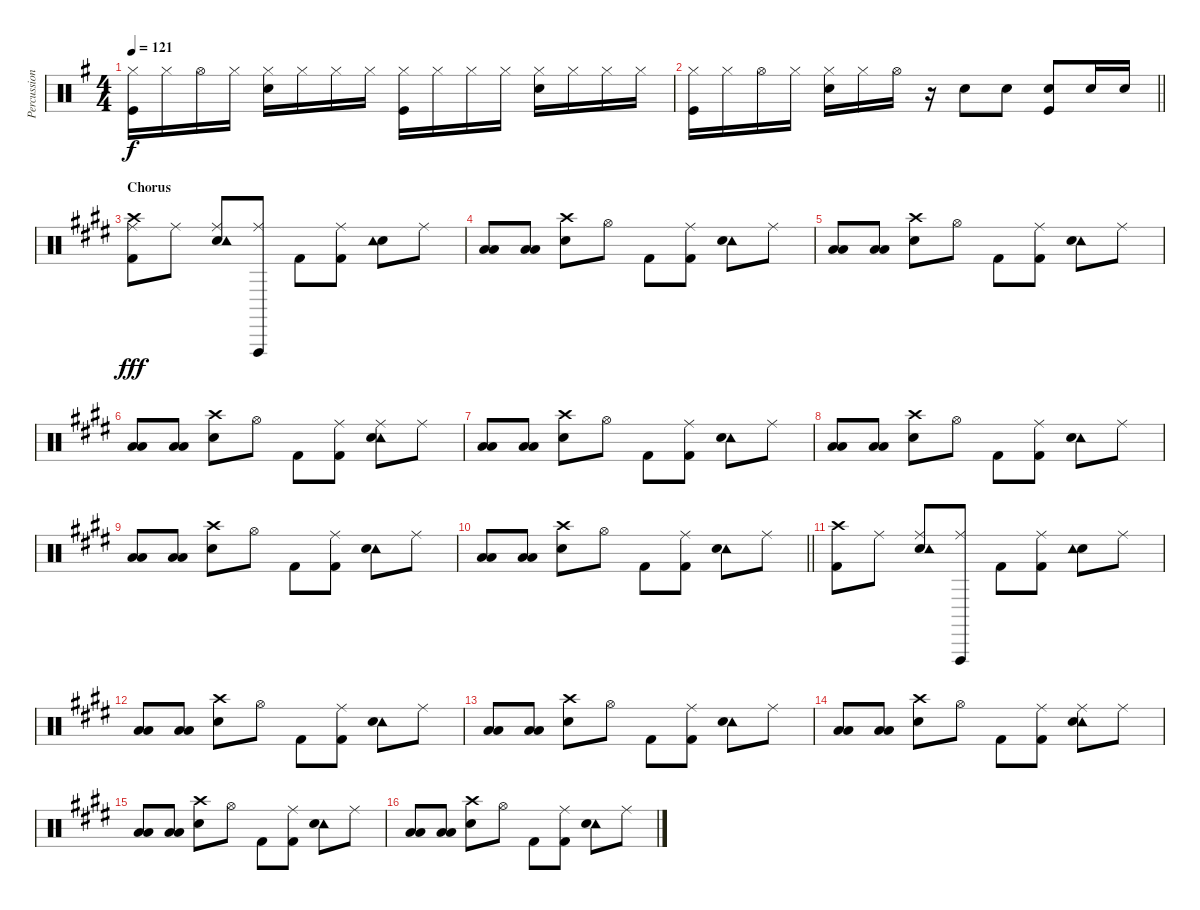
\track ("Percussion" "Percussion") {instrument percussion}
\staff {score}
\articulation defaults
\ts (4 4)
\tempo 121
\clef neutral
\ks g
("Hi-Hat (closed)" "Kick (hit)").16{dy f} "Hi-Hat (closed)".16 "Hi-Hat (open)".16 "Hi-Hat (closed)".16 ("Hi-Hat (closed)" "Snare (hit) 2").16 "Hi-Hat (closed)".16 "Hi-Hat (closed)".16 "Hi-Hat (closed)".16 ("Hi-Hat (closed)" "Kick (hit)").16 "Hi-Hat (closed)".16 "Hi-Hat (closed)".16 "Hi-Hat (closed)".16 ("Hi-Hat (closed)" "Snare (hit) 2").16 "Hi-Hat (closed)".16 "Hi-Hat (closed)".16 "Hi-Hat (closed)".16 |
\barLineRight lightlight
("Hi-Hat (closed)" "Kick (hit)").16 "Hi-Hat (closed)".16 "Hi-Hat (open)".16 "Hi-Hat (closed)".16 ("Hi-Hat (closed)" "Snare (hit) 2").16 "Hi-Hat (closed)".16 "Hi-Hat (open)".16 r.16 "Snare (hit) 2".8 "Snare (hit) 2".8 ("Kick (hit)" "Snare (hit) 2").8 "Snare (hit) 2".16 "Snare (hit) 2".16 |
\section ("" "Chorus")
\ks e
("Ride (middle)" "Crash high (hit)" "Kick (hit) 2").8{dy fff} "Ride (middle)".8 ("Ride (middle)" "Snare (hit) 2" "Tambourine (hit)").8 ("Ride (middle)" "Vibraslap (hit)").8 "Kick (hit) 2".8 ("Ride (middle)" "Kick (hit) 2").8 ("Snare (hit) 2" "Tambourine (hit)").8 "Ride (middle)".8 |
("Low Tom (hit)" "Low Floor Tom (hit)").8 ("Low Tom (hit)" "Low Floor Tom (hit)").8 ("Crash high (hit)" "Snare (hit) 2").8 "Hi-Hat (open)".8 "Kick (hit) 2".8 ("Ride (middle)" "Kick (hit) 2").8 ("Tambourine (hit)" "Snare (hit) 2").8 "Ride (middle)".8 |
("Low Tom (hit)" "Low Floor Tom (hit)").8 ("Low Tom (hit)" "Low Floor Tom (hit)").8 ("Crash high (hit)" "Snare (hit) 2").8 "Hi-Hat (open)".8 "Kick (hit) 2".8 ("Ride (middle)" "Kick (hit) 2").8 ("Tambourine (hit)" "Snare (hit) 2").8 "Ride (middle)".8 |
("Low Tom (hit)" "Low Floor Tom (hit)").8 ("Low Tom (hit)" "Low Floor Tom (hit)").8 ("Crash high (hit)" "Snare (hit) 2").8 "Hi-Hat (open)".8 "Kick (hit) 2".8 ("Ride (middle)" "Kick (hit) 2").8 ("Ride (middle)" "Tambourine (hit)" "Snare (hit) 2").8 "Ride (middle)".8 |
("Low Tom (hit)" "Low Floor Tom (hit)").8 ("Low Tom (hit)" "Low Floor Tom (hit)").8 ("Crash high (hit)" "Snare (hit) 2").8 "Hi-Hat (open)".8 "Kick (hit) 2".8 ("Ride (middle)" "Kick (hit) 2").8 ("Tambourine (hit)" "Snare (hit) 2").8 "Ride (middle)".8 |
("Low Tom (hit)" "Low Floor Tom (hit)").8 ("Low Tom (hit)" "Low Floor Tom (hit)").8 ("Crash high (hit)" "Snare (hit) 2").8 "Hi-Hat (open)".8 "Kick (hit) 2".8 ("Ride (middle)" "Kick (hit) 2").8 ("Tambourine (hit)" "Snare (hit) 2").8 "Ride (middle)".8 |
("Low Tom (hit)" "Low Floor Tom (hit)").8 ("Low Tom (hit)" "Low Floor Tom (hit)").8 ("Crash high (hit)" "Snare (hit) 2").8 "Hi-Hat (open)".8 "Kick (hit) 2".8 ("Ride (middle)" "Kick (hit) 2").8 ("Tambourine (hit)" "Snare (hit) 2").8 "Ride (middle)".8 |
\barLineRight lightlight
("Low Tom (hit)" "Low Floor Tom (hit)").8 ("Low Tom (hit)" "Low Floor Tom (hit)").8 ("Crash high (hit)" "Snare (hit) 2").8 "Hi-Hat (open)".8 "Kick (hit) 2".8 ("Ride (middle)" "Kick (hit) 2").8 ("Tambourine (hit)" "Snare (hit) 2").8 "Ride (middle)".8 |
("Crash high (hit)" "Kick (hit) 2").8 "Ride (middle)".8 ("Ride (middle)" "Snare (hit) 2" "Tambourine (hit)").8 ("Ride (middle)" "Vibraslap (hit)").8 "Kick (hit) 2".8 ("Ride (middle)" "Kick (hit) 2").8 ("Snare (hit) 2" "Tambourine (hit)").8 "Ride (middle)".8 |
("Low Tom (hit)" "Low Floor Tom (hit)").8 ("Low Tom (hit)" "Low Floor Tom (hit)").8 ("Crash high (hit)" "Snare (hit) 2").8 "Hi-Hat (open)".8 "Kick (hit) 2".8 ("Ride (middle)" "Kick (hit) 2").8 ("Tambourine (hit)" "Snare (hit) 2").8 "Ride (middle)".8 |
("Low Tom (hit)" "Low Floor Tom (hit)").8 ("Low Tom (hit)" "Low Floor Tom (hit)").8 ("Crash high (hit)" "Snare (hit) 2").8 "Hi-Hat (open)".8 "Kick (hit) 2".8 ("Ride (middle)" "Kick (hit) 2").8 ("Tambourine (hit)" "Snare (hit) 2").8 "Ride (middle)".8 |
("Low Tom (hit)" "Low Floor Tom (hit)").8 ("Low Tom (hit)" "Low Floor Tom (hit)").8 ("Crash high (hit)" "Snare (hit) 2").8 "Hi-Hat (open)".8 "Kick (hit) 2".8 ("Ride (middle)" "Kick (hit) 2").8 ("Ride (middle)" "Tambourine (hit)" "Snare (hit) 2").8 "Ride (middle)".8 |
("Low Tom (hit)" "Low Floor Tom (hit)").8 ("Low Tom (hit)" "Low Floor Tom (hit)").8 ("Crash high (hit)" "Snare (hit) 2").8 "Hi-Hat (open)".8 "Kick (hit) 2".8 ("Ride (middle)" "Kick (hit) 2").8 ("Tambourine (hit)" "Snare (hit) 2").8 "Ride (middle)".8 |
("Low Tom (hit)" "Low Floor Tom (hit)").8 ("Low Tom (hit)" "Low Floor Tom (hit)").8 ("Crash high (hit)" "Snare (hit) 2").8 "Hi-Hat (open)".8 "Kick (hit) 2".8 ("Ride (middle)" "Kick (hit) 2").8 ("Tambourine (hit)" "Snare (hit) 2").8 "Ride (middle)".8
